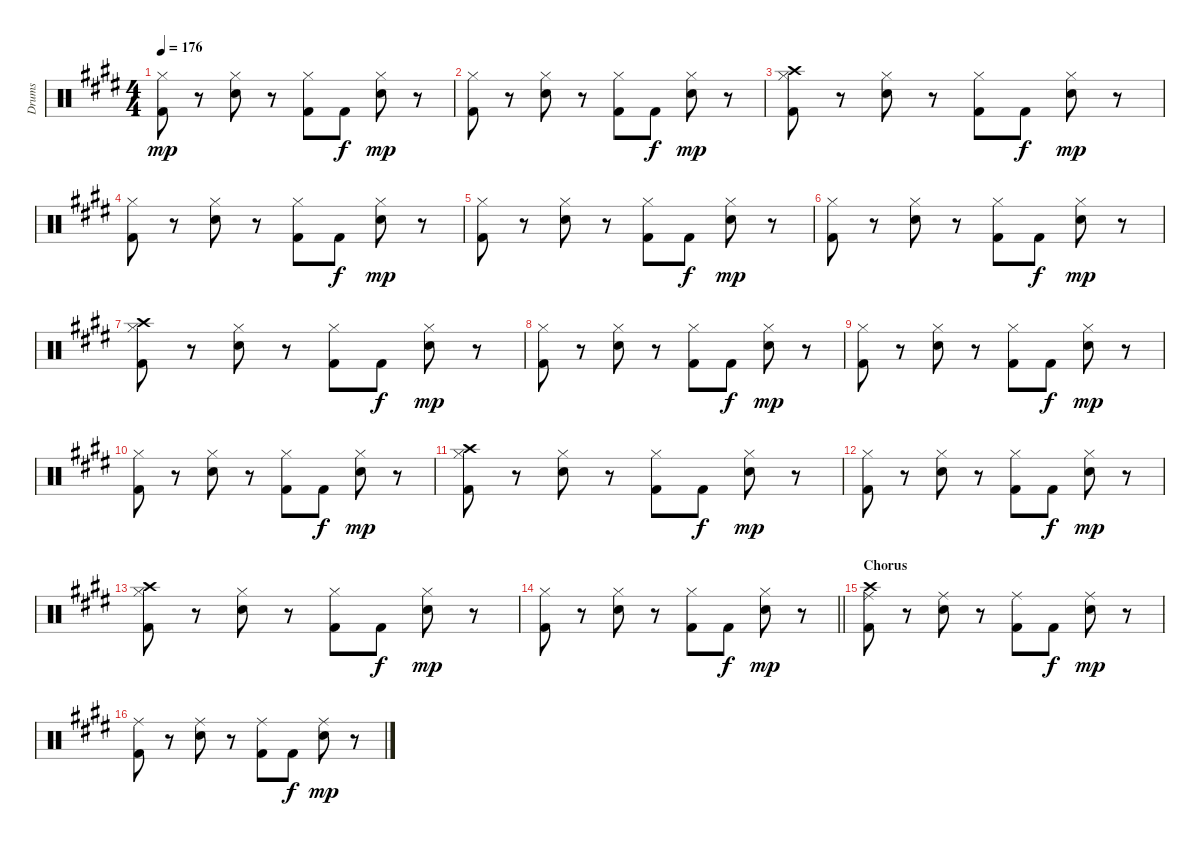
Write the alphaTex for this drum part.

\track ("Drums" "Drums") {instrument percussion}
\staff {score}
\articulation defaults
\ts (4 4)
\tempo 176
\clef neutral
\ks e
("Hi-Hat (closed)" "Kick (hit) 2").8{dy mp} r.8 ("Hi-Hat (closed)" "Snare (hit) 2").8 r.8 ("Hi-Hat (closed)" "Kick (hit) 2").8 "Kick (hit) 2".8{dy f} ("Hi-Hat (closed)" "Snare (hit) 2").8{dy mp} r.8 |
("Hi-Hat (closed)" "Kick (hit) 2").8 r.8 ("Hi-Hat (closed)" "Snare (hit) 2").8 r.8 ("Hi-Hat (closed)" "Kick (hit) 2").8 "Kick (hit) 2".8{dy f} ("Hi-Hat (closed)" "Snare (hit) 2").8{dy mp} r.8 |
("Crash high (hit)" "Hi-Hat (closed)" "Kick (hit) 2").8 r.8 ("Hi-Hat (closed)" "Snare (hit) 2").8 r.8 ("Hi-Hat (closed)" "Kick (hit) 2").8 "Kick (hit) 2".8{dy f} ("Hi-Hat (closed)" "Snare (hit) 2").8{dy mp} r.8 |
("Hi-Hat (closed)" "Kick (hit) 2").8 r.8 ("Hi-Hat (closed)" "Snare (hit) 2").8 r.8 ("Hi-Hat (closed)" "Kick (hit) 2").8 "Kick (hit) 2".8{dy f} ("Hi-Hat (closed)" "Snare (hit) 2").8{dy mp} r.8 |
("Hi-Hat (closed)" "Kick (hit) 2").8 r.8 ("Hi-Hat (closed)" "Snare (hit) 2").8 r.8 ("Hi-Hat (closed)" "Kick (hit) 2").8 "Kick (hit) 2".8{dy f} ("Hi-Hat (closed)" "Snare (hit) 2").8{dy mp} r.8 |
("Hi-Hat (closed)" "Kick (hit) 2").8 r.8 ("Hi-Hat (closed)" "Snare (hit) 2").8 r.8 ("Hi-Hat (closed)" "Kick (hit) 2").8 "Kick (hit) 2".8{dy f} ("Hi-Hat (closed)" "Snare (hit) 2").8{dy mp} r.8 |
("Crash high (hit)" "Hi-Hat (closed)" "Kick (hit) 2").8 r.8 ("Hi-Hat (closed)" "Snare (hit) 2").8 r.8 ("Hi-Hat (closed)" "Kick (hit) 2").8 "Kick (hit) 2".8{dy f} ("Hi-Hat (closed)" "Snare (hit) 2").8{dy mp} r.8 |
("Hi-Hat (closed)" "Kick (hit) 2").8 r.8 ("Hi-Hat (closed)" "Snare (hit) 2").8 r.8 ("Hi-Hat (closed)" "Kick (hit) 2").8 "Kick (hit) 2".8{dy f} ("Hi-Hat (closed)" "Snare (hit) 2").8{dy mp} r.8 |
("Hi-Hat (closed)" "Kick (hit) 2").8 r.8 ("Hi-Hat (closed)" "Snare (hit) 2").8 r.8 ("Hi-Hat (closed)" "Kick (hit) 2").8 "Kick (hit) 2".8{dy f} ("Hi-Hat (closed)" "Snare (hit) 2").8{dy mp} r.8 |
("Hi-Hat (closed)" "Kick (hit) 2").8 r.8 ("Hi-Hat (closed)" "Snare (hit) 2").8 r.8 ("Hi-Hat (closed)" "Kick (hit) 2").8 "Kick (hit) 2".8{dy f} ("Hi-Hat (closed)" "Snare (hit) 2").8{dy mp} r.8 |
("Crash high (hit)" "Hi-Hat (closed)" "Kick (hit) 2").8 r.8 ("Hi-Hat (closed)" "Snare (hit) 2").8 r.8 ("Hi-Hat (closed)" "Kick (hit) 2").8 "Kick (hit) 2".8{dy f} ("Hi-Hat (closed)" "Snare (hit) 2").8{dy mp} r.8 |
("Hi-Hat (closed)" "Kick (hit) 2").8 r.8 ("Hi-Hat (closed)" "Snare (hit) 2").8 r.8 ("Hi-Hat (closed)" "Kick (hit) 2").8 "Kick (hit) 2".8{dy f} ("Hi-Hat (closed)" "Snare (hit) 2").8{dy mp} r.8 |
("Crash high (hit)" "Hi-Hat (closed)" "Kick (hit) 2").8 r.8 ("Hi-Hat (closed)" "Snare (hit) 2").8 r.8 ("Hi-Hat (closed)" "Kick (hit) 2").8 "Kick (hit) 2".8{dy f} ("Hi-Hat (closed)" "Snare (hit) 2").8{dy mp} r.8 |
\barLineRight lightlight
("Hi-Hat (closed)" "Kick (hit) 2").8 r.8 ("Hi-Hat (closed)" "Snare (hit) 2").8 r.8 ("Hi-Hat (closed)" "Kick (hit) 2").8 "Kick (hit) 2".8{dy f} ("Hi-Hat (closed)" "Snare (hit) 2").8{dy mp} r.8 |
\section ("" "Chorus")
("Crash high (hit)" "Ride (middle)" "Kick (hit) 2").8 r.8 ("Ride (middle)" "Snare (hit) 2").8 r.8 ("Ride (middle)" "Kick (hit) 2").8 "Kick (hit) 2".8{dy f} ("Ride (middle)" "Snare (hit) 2").8{dy mp} r.8 |
("Ride (middle)" "Kick (hit) 2").8 r.8 ("Ride (middle)" "Snare (hit) 2").8 r.8 ("Ride (middle)" "Kick (hit) 2").8 "Kick (hit) 2".8{dy f} ("Ride (middle)" "Snare (hit) 2").8{dy mp} r.8
